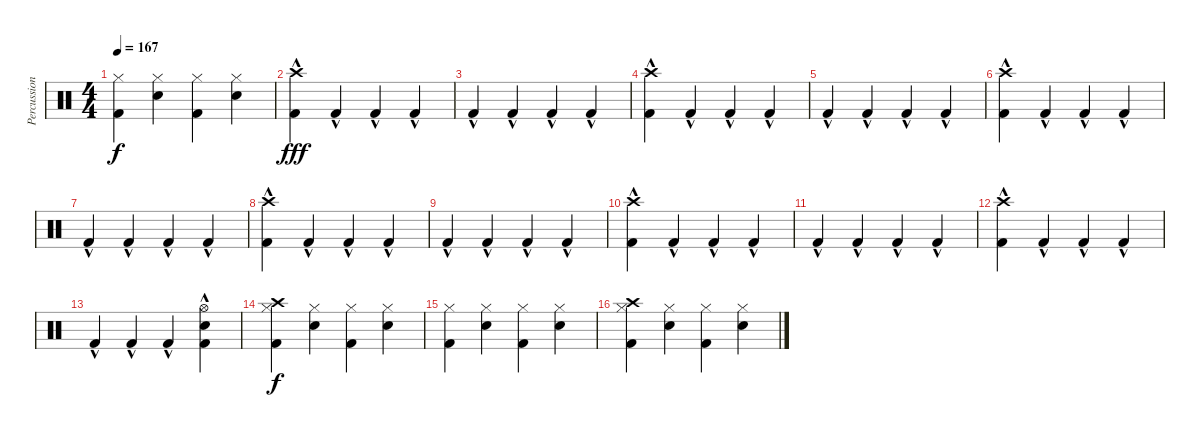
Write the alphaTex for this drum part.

\track ("Percussion" "Percussion") {instrument percussion}
\staff {score}
\articulation defaults
\ts (4 4)
\tempo 167
\clef neutral
\ks c
("Kick (hit) 2" "Hi-Hat (closed)").4{dy f} ("Hi-Hat (closed)" "Electric Snare (hit)").4 ("Kick (hit) 2" "Hi-Hat (closed)").4 ("Hi-Hat (closed)" "Electric Snare (hit)").4 |
("Kick (hit) 2"{hac} "Crash high (hit)"{hac}).4{dy fff} "Kick (hit) 2"{hac}.4 "Kick (hit) 2"{hac}.4 "Kick (hit) 2"{hac}.4 |
"Kick (hit) 2"{hac}.4 "Kick (hit) 2"{hac}.4 "Kick (hit) 2"{hac}.4 "Kick (hit) 2"{hac}.4 |
("Kick (hit) 2"{hac} "Crash high (hit)"{hac}).4 "Kick (hit) 2"{hac}.4 "Kick (hit) 2"{hac}.4 "Kick (hit) 2"{hac}.4 |
"Kick (hit) 2"{hac}.4 "Kick (hit) 2"{hac}.4 "Kick (hit) 2"{hac}.4 "Kick (hit) 2"{hac}.4 |
("Kick (hit) 2"{hac} "Crash high (hit)"{hac}).4 "Kick (hit) 2"{hac}.4 "Kick (hit) 2"{hac}.4 "Kick (hit) 2"{hac}.4 |
"Kick (hit) 2"{hac}.4 "Kick (hit) 2"{hac}.4 "Kick (hit) 2"{hac}.4 "Kick (hit) 2"{hac}.4 |
("Kick (hit) 2"{hac} "Crash high (hit)"{hac}).4 "Kick (hit) 2"{hac}.4 "Kick (hit) 2"{hac}.4 "Kick (hit) 2"{hac}.4 |
"Kick (hit) 2"{hac}.4 "Kick (hit) 2"{hac}.4 "Kick (hit) 2"{hac}.4 "Kick (hit) 2"{hac}.4 |
("Kick (hit) 2"{hac} "Crash high (hit)"{hac}).4 "Kick (hit) 2"{hac}.4 "Kick (hit) 2"{hac}.4 "Kick (hit) 2"{hac}.4 |
"Kick (hit) 2"{hac}.4 "Kick (hit) 2"{hac}.4 "Kick (hit) 2"{hac}.4 "Kick (hit) 2"{hac}.4 |
("Kick (hit) 2"{hac} "Crash high (hit)"{hac}).4 "Kick (hit) 2"{hac}.4 "Kick (hit) 2"{hac}.4 "Kick (hit) 2"{hac}.4 |
"Kick (hit) 2"{hac}.4 "Kick (hit) 2"{hac}.4 "Kick (hit) 2"{hac}.4 ("Kick (hit) 2"{hac} "Hi-Hat (open)" "Electric Snare (hit)").4 |
("Kick (hit) 2" "Hi-Hat (closed)" "Crash high (hit)").4{dy f} ("Hi-Hat (closed)" "Electric Snare (hit)").4 ("Kick (hit) 2" "Hi-Hat (closed)").4 ("Hi-Hat (closed)" "Electric Snare (hit)").4 |
("Kick (hit) 2" "Hi-Hat (closed)").4 ("Hi-Hat (closed)" "Electric Snare (hit)").4 ("Kick (hit) 2" "Hi-Hat (closed)").4 ("Hi-Hat (closed)" "Electric Snare (hit)").4 |
("Kick (hit) 2" "Hi-Hat (closed)" "Crash high (hit)").4 ("Hi-Hat (closed)" "Electric Snare (hit)").4 ("Kick (hit) 2" "Hi-Hat (closed)").4 ("Hi-Hat (closed)" "Electric Snare (hit)").4
